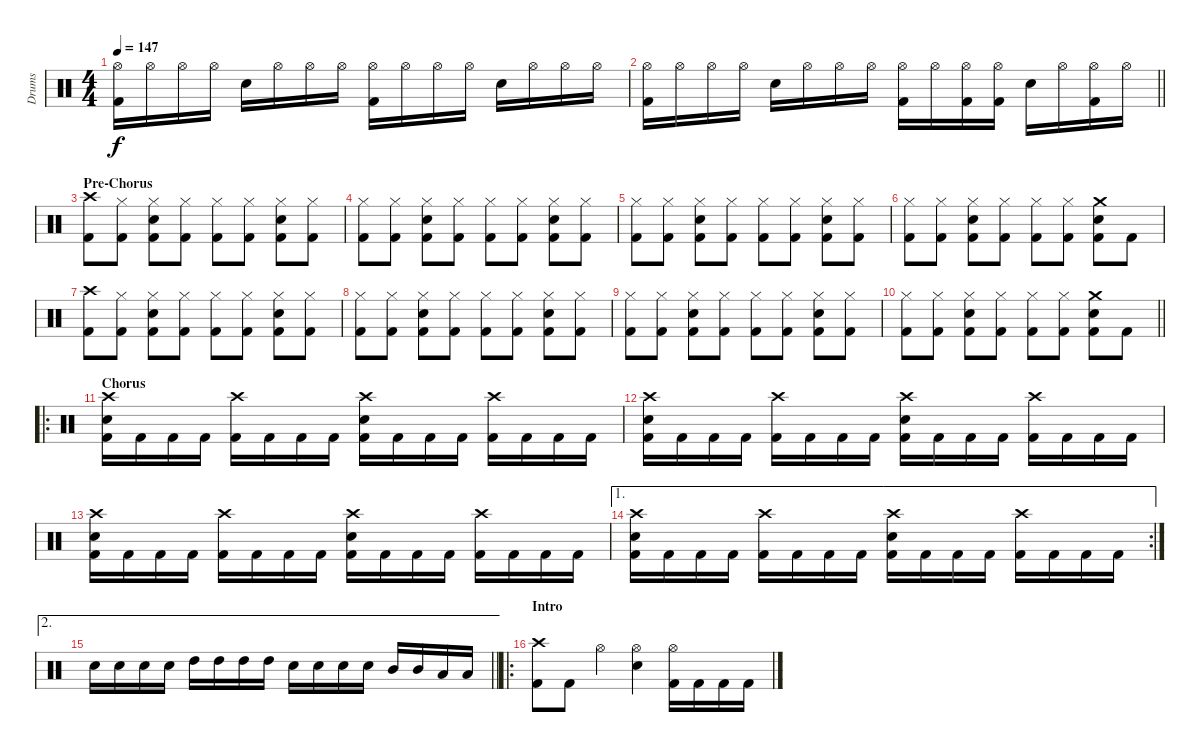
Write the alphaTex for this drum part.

\track ("Drums" "Drums") {instrument percussion}
\staff {score}
\articulation defaults
\ts (4 4)
\tempo 147
\clef neutral
\ks c
("Hi-Hat (open)" "Kick (hit) 2").16{dy f} "Hi-Hat (open)".16 "Hi-Hat (open)".16 "Hi-Hat (open)".16 "Electric Snare (hit)".16 "Hi-Hat (open)".16 "Hi-Hat (open)".16 "Hi-Hat (open)".16 ("Hi-Hat (open)" "Kick (hit) 2").16 "Hi-Hat (open)".16 "Hi-Hat (open)".16 "Hi-Hat (open)".16 "Electric Snare (hit)".16 "Hi-Hat (open)".16 "Hi-Hat (open)".16 "Hi-Hat (open)".16 |
\barLineRight lightlight
("Hi-Hat (open)" "Kick (hit) 2").16 "Hi-Hat (open)".16 "Hi-Hat (open)".16 "Hi-Hat (open)".16 "Electric Snare (hit)".16 "Hi-Hat (open)".16 "Hi-Hat (open)".16 "Hi-Hat (open)".16 ("Hi-Hat (open)" "Kick (hit) 2").16 "Hi-Hat (open)".16 ("Hi-Hat (open)" "Kick (hit) 2").16 ("Hi-Hat (open)" "Kick (hit) 2").16 "Electric Snare (hit)".16 "Hi-Hat (open)".16 ("Hi-Hat (open)" "Kick (hit) 2").16 "Hi-Hat (open)".16 |
\section ("" "Pre-Chorus")
("Crash high (hit)" "Kick (hit) 2").8 ("Hi-Hat (closed)" "Kick (hit) 2").8 ("Hi-Hat (closed)" "Electric Snare (hit)" "Kick (hit) 2").8 ("Hi-Hat (closed)" "Kick (hit) 2").8 ("Hi-Hat (closed)" "Kick (hit) 2").8 ("Hi-Hat (closed)" "Kick (hit) 2").8 ("Hi-Hat (closed)" "Electric Snare (hit)" "Kick (hit) 2").8 ("Hi-Hat (closed)" "Kick (hit) 2").8 |
("Hi-Hat (closed)" "Kick (hit) 2").8 ("Hi-Hat (closed)" "Kick (hit) 2").8 ("Hi-Hat (closed)" "Electric Snare (hit)" "Kick (hit) 2").8 ("Hi-Hat (closed)" "Kick (hit) 2").8 ("Hi-Hat (closed)" "Kick (hit) 2").8 ("Hi-Hat (closed)" "Kick (hit) 2").8 ("Hi-Hat (closed)" "Electric Snare (hit)" "Kick (hit) 2").8 ("Hi-Hat (closed)" "Kick (hit) 2").8 |
("Hi-Hat (closed)" "Kick (hit) 2").8 ("Hi-Hat (closed)" "Kick (hit) 2").8 ("Hi-Hat (closed)" "Electric Snare (hit)" "Kick (hit) 2").8 ("Hi-Hat (closed)" "Kick (hit) 2").8 ("Hi-Hat (closed)" "Kick (hit) 2").8 ("Hi-Hat (closed)" "Kick (hit) 2").8 ("Hi-Hat (closed)" "Electric Snare (hit)" "Kick (hit) 2").8 ("Hi-Hat (closed)" "Kick (hit) 2").8 |
("Hi-Hat (closed)" "Kick (hit) 2").8 ("Hi-Hat (closed)" "Kick (hit) 2").8 ("Hi-Hat (closed)" "Electric Snare (hit)" "Kick (hit) 2").8 ("Hi-Hat (closed)" "Kick (hit) 2").8 ("Hi-Hat (closed)" "Kick (hit) 2").8 ("Hi-Hat (closed)" "Kick (hit) 2").8 ("Crash medium (hit)" "Electric Snare (hit)" "Kick (hit) 2").8 "Kick (hit) 2".8 |
("Crash high (hit)" "Kick (hit) 2").8 ("Hi-Hat (closed)" "Kick (hit) 2").8 ("Hi-Hat (closed)" "Electric Snare (hit)" "Kick (hit) 2").8 ("Hi-Hat (closed)" "Kick (hit) 2").8 ("Hi-Hat (closed)" "Kick (hit) 2").8 ("Hi-Hat (closed)" "Kick (hit) 2").8 ("Hi-Hat (closed)" "Electric Snare (hit)" "Kick (hit) 2").8 ("Hi-Hat (closed)" "Kick (hit) 2").8 |
("Hi-Hat (closed)" "Kick (hit) 2").8 ("Hi-Hat (closed)" "Kick (hit) 2").8 ("Hi-Hat (closed)" "Electric Snare (hit)" "Kick (hit) 2").8 ("Hi-Hat (closed)" "Kick (hit) 2").8 ("Hi-Hat (closed)" "Kick (hit) 2").8 ("Hi-Hat (closed)" "Kick (hit) 2").8 ("Hi-Hat (closed)" "Electric Snare (hit)" "Kick (hit) 2").8 ("Hi-Hat (closed)" "Kick (hit) 2").8 |
("Hi-Hat (closed)" "Kick (hit) 2").8 ("Hi-Hat (closed)" "Kick (hit) 2").8 ("Hi-Hat (closed)" "Electric Snare (hit)" "Kick (hit) 2").8 ("Hi-Hat (closed)" "Kick (hit) 2").8 ("Hi-Hat (closed)" "Kick (hit) 2").8 ("Hi-Hat (closed)" "Kick (hit) 2").8 ("Hi-Hat (closed)" "Electric Snare (hit)" "Kick (hit) 2").8 ("Hi-Hat (closed)" "Kick (hit) 2").8 |
\barLineRight lightlight
("Hi-Hat (closed)" "Kick (hit) 2").8 ("Hi-Hat (closed)" "Kick (hit) 2").8 ("Hi-Hat (closed)" "Electric Snare (hit)" "Kick (hit) 2").8 ("Hi-Hat (closed)" "Kick (hit) 2").8 ("Hi-Hat (closed)" "Kick (hit) 2").8 ("Hi-Hat (closed)" "Kick (hit) 2").8 ("Crash medium (hit)" "Electric Snare (hit)" "Kick (hit) 2").8 "Kick (hit) 2".8 |
\ro
\section ("" "Chorus")
("Crash high (hit)" "Electric Snare (hit)" "Kick (hit) 2").16 "Kick (hit) 2".16 "Kick (hit) 2".16 "Kick (hit) 2".16 ("Crash high (hit)" "Kick (hit) 2").16 "Kick (hit) 2".16 "Kick (hit) 2".16 "Kick (hit) 2".16 ("Crash high (hit)" "Electric Snare (hit)" "Kick (hit) 2").16 "Kick (hit) 2".16 "Kick (hit) 2".16 "Kick (hit) 2".16 ("Crash high (hit)" "Kick (hit) 2").16 "Kick (hit) 2".16 "Kick (hit) 2".16 "Kick (hit) 2".16 |
("Crash high (hit)" "Electric Snare (hit)" "Kick (hit) 2").16 "Kick (hit) 2".16 "Kick (hit) 2".16 "Kick (hit) 2".16 ("Crash high (hit)" "Kick (hit) 2").16 "Kick (hit) 2".16 "Kick (hit) 2".16 "Kick (hit) 2".16 ("Crash high (hit)" "Electric Snare (hit)" "Kick (hit) 2").16 "Kick (hit) 2".16 "Kick (hit) 2".16 "Kick (hit) 2".16 ("Crash high (hit)" "Kick (hit) 2").16 "Kick (hit) 2".16 "Kick (hit) 2".16 "Kick (hit) 2".16 |
("Crash high (hit)" "Electric Snare (hit)" "Kick (hit) 2").16 "Kick (hit) 2".16 "Kick (hit) 2".16 "Kick (hit) 2".16 ("Crash high (hit)" "Kick (hit) 2").16 "Kick (hit) 2".16 "Kick (hit) 2".16 "Kick (hit) 2".16 ("Crash high (hit)" "Electric Snare (hit)" "Kick (hit) 2").16 "Kick (hit) 2".16 "Kick (hit) 2".16 "Kick (hit) 2".16 ("Crash high (hit)" "Kick (hit) 2").16 "Kick (hit) 2".16 "Kick (hit) 2".16 "Kick (hit) 2".16 |
\ae 1
\rc 2
("Crash high (hit)" "Electric Snare (hit)" "Kick (hit) 2").16 "Kick (hit) 2".16 "Kick (hit) 2".16 "Kick (hit) 2".16 ("Crash high (hit)" "Kick (hit) 2").16 "Kick (hit) 2".16 "Kick (hit) 2".16 "Kick (hit) 2".16 ("Crash high (hit)" "Electric Snare (hit)" "Kick (hit) 2").16 "Kick (hit) 2".16 "Kick (hit) 2".16 "Kick (hit) 2".16 ("Crash high (hit)" "Kick (hit) 2").16 "Kick (hit) 2".16 "Kick (hit) 2".16 "Kick (hit) 2".16 |
\ae 2
\barLineRight lightlight "Electric Snare (hit)".16 "Electric Snare (hit)".16 "Electric Snare (hit)".16 "Electric Snare (hit)".16 "High Tom (hit)".16 "High Tom (hit)".16 "High Tom (hit)".16 "High Tom (hit)".16 "Electric Snare (hit)".16 "Electric Snare (hit)".16 "Electric Snare (hit)".16 "Electric Snare (hit)".16 "Mid Tom (hit)".16 "Mid Tom (hit)".16 "Low Tom (hit)".16 "Low Tom (hit)".16
|
\ro
\section ("" "Intro")
("Crash high (hit)" "Kick (hit) 2").8 "Kick (hit) 2".8 "Hi-Hat (open)".4 ("Hi-Hat (open)" "Electric Snare (hit)").4 ("Hi-Hat (open)" "Kick (hit) 2").16 "Kick (hit) 2".16 "Kick (hit) 2".16 "Kick (hit) 2".16
